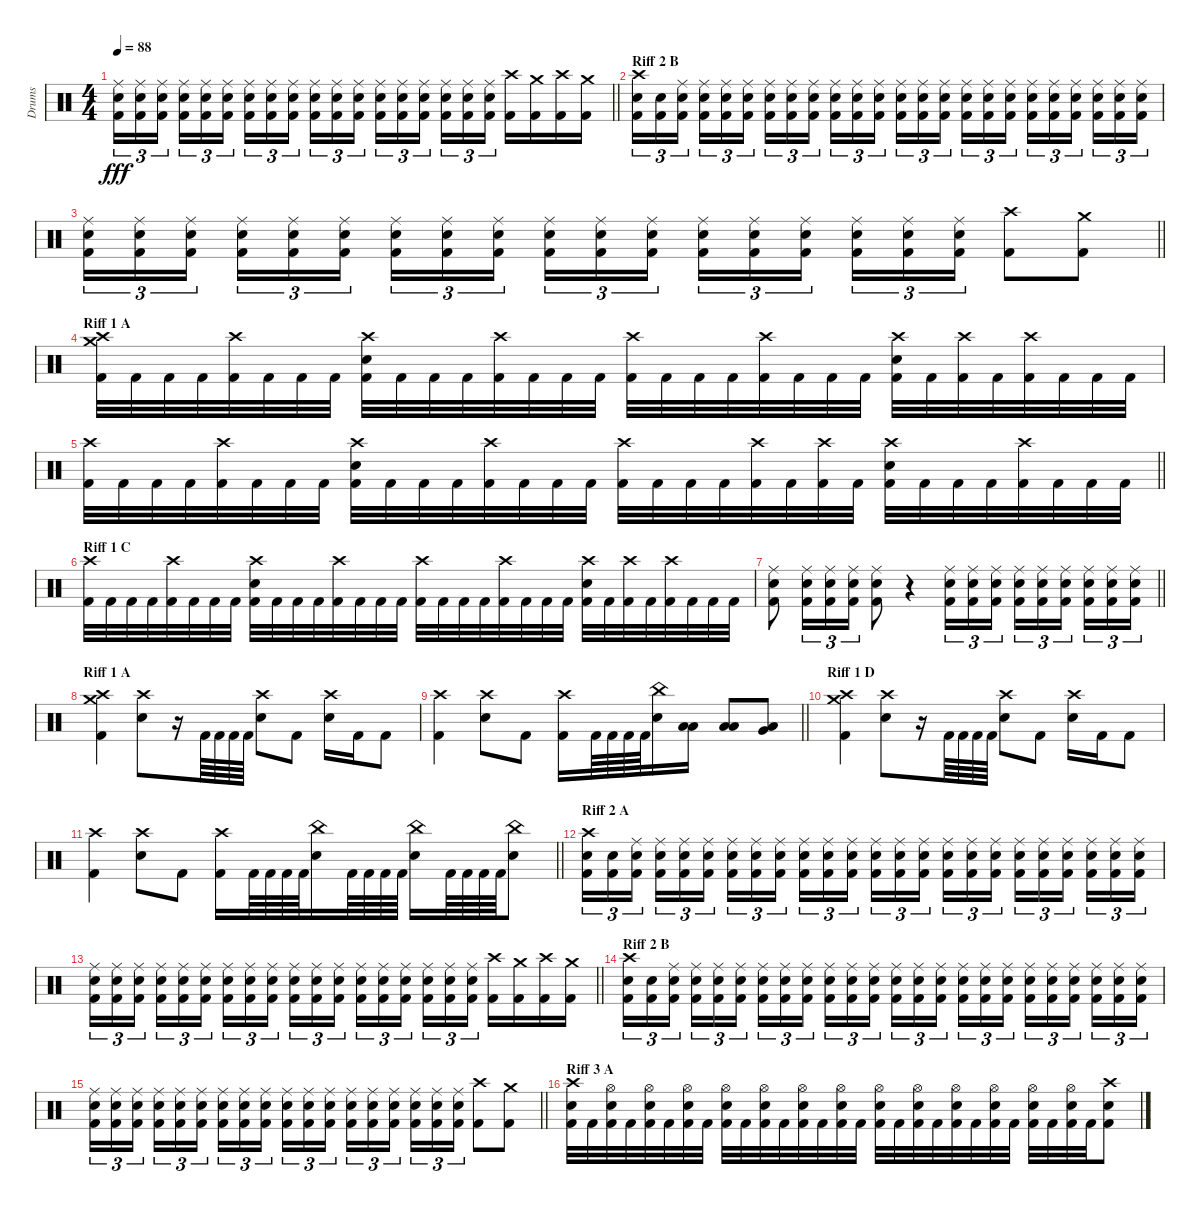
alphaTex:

\track ("Drums" "Drums") {instrument percussion}
\staff {score}
\articulation defaults
\ts (4 4)
\tempo 88
\clef neutral
\barLineRight lightlight
\ks c
("Ride (middle)" "Electric Snare (hit)" "Kick (hit) 2").16{tu (3 2) dy fff} ("Ride (middle)" "Electric Snare (hit)" "Kick (hit) 2").16{tu (3 2)} ("Ride (middle)" "Electric Snare (hit)" "Kick (hit) 2").16{tu (3 2) beam splitsecondary} ("Ride (middle)" "Electric Snare (hit)" "Kick (hit) 2").16{tu (3 2)} ("Ride (middle)" "Electric Snare (hit)" "Kick (hit) 2").16{tu (3 2)} ("Ride (middle)" "Electric Snare (hit)" "Kick (hit) 2").16{tu (3 2)} ("Ride (middle)" "Electric Snare (hit)" "Kick (hit) 2").16{tu (3 2)} ("Ride (middle)" "Electric Snare (hit)" "Kick (hit) 2").16{tu (3 2)} ("Ride (middle)" "Electric Snare (hit)" "Kick (hit) 2").16{tu (3 2) beam splitsecondary} ("Ride (middle)" "Electric Snare (hit)" "Kick (hit) 2").16{tu (3 2)} ("Ride (middle)" "Electric Snare (hit)" "Kick (hit) 2").16{tu (3 2)} ("Ride (middle)" "Electric Snare (hit)" "Kick (hit) 2").16{tu (3 2)} ("Ride (middle)" "Electric Snare (hit)" "Kick (hit) 2").16{tu (3 2)} ("Ride (middle)" "Electric Snare (hit)" "Kick (hit) 2").16{tu (3 2)} ("Ride (middle)" "Electric Snare (hit)" "Kick (hit) 2").16{tu (3 2) beam splitsecondary} ("Ride (middle)" "Electric Snare (hit)" "Kick (hit) 2").16{tu (3 2)} ("Ride (middle)" "Electric Snare (hit)" "Kick (hit) 2").16{tu (3 2)} ("Ride (middle)" "Electric Snare (hit)" "Kick (hit) 2").16{tu (3 2)} ("Crash high (hit)" "Kick (hit) 2").16 ("Crash medium (hit)" "Kick (hit) 2").16 ("Crash high (hit)" "Kick (hit) 2").16 ("Crash medium (hit)" "Kick (hit) 2").16 |
\section ("" "Riff 2 B")
("Crash high (hit)" "Electric Snare (hit)" "Kick (hit) 2").16{tu (3 2)} ("Electric Snare (hit)" "Kick (hit) 2").16{tu (3 2)} ("Ride (middle)" "Electric Snare (hit)" "Kick (hit) 2").16{tu (3 2) beam splitsecondary} ("Ride (middle)" "Electric Snare (hit)" "Kick (hit) 2").16{tu (3 2)} ("Ride (middle)" "Electric Snare (hit)" "Kick (hit) 2").16{tu (3 2)} ("Ride (middle)" "Electric Snare (hit)" "Kick (hit) 2").16{tu (3 2)} ("Ride (middle)" "Electric Snare (hit)" "Kick (hit) 2").16{tu (3 2)} ("Ride (middle)" "Electric Snare (hit)" "Kick (hit) 2").16{tu (3 2)} ("Ride (middle)" "Electric Snare (hit)" "Kick (hit) 2").16{tu (3 2) beam splitsecondary} ("Ride (middle)" "Electric Snare (hit)" "Kick (hit) 2").16{tu (3 2)} ("Ride (middle)" "Electric Snare (hit)" "Kick (hit) 2").16{tu (3 2)} ("Ride (middle)" "Electric Snare (hit)" "Kick (hit) 2").16{tu (3 2)} ("Ride (middle)" "Electric Snare (hit)" "Kick (hit) 2").16{tu (3 2)} ("Ride (middle)" "Electric Snare (hit)" "Kick (hit) 2").16{tu (3 2)} ("Ride (middle)" "Electric Snare (hit)" "Kick (hit) 2").16{tu (3 2) beam splitsecondary} ("Ride (middle)" "Electric Snare (hit)" "Kick (hit) 2").16{tu (3 2)} ("Ride (middle)" "Electric Snare (hit)" "Kick (hit) 2").16{tu (3 2)} ("Ride (middle)" "Electric Snare (hit)" "Kick (hit) 2").16{tu (3 2)} ("Ride (middle)" "Electric Snare (hit)" "Kick (hit) 2").16{tu (3 2)} ("Ride (middle)" "Electric Snare (hit)" "Kick (hit) 2").16{tu (3 2)} ("Ride (middle)" "Electric Snare (hit)" "Kick (hit) 2").16{tu (3 2) beam splitsecondary} ("Ride (middle)" "Electric Snare (hit)" "Kick (hit) 2").16{tu (3 2)} ("Ride (middle)" "Electric Snare (hit)" "Kick (hit) 2").16{tu (3 2)} ("Ride (middle)" "Electric Snare (hit)" "Kick (hit) 2").16{tu (3 2)} |
\barLineRight lightlight
("Ride (middle)" "Electric Snare (hit)" "Kick (hit) 2").16{tu (3 2)} ("Ride (middle)" "Electric Snare (hit)" "Kick (hit) 2").16{tu (3 2)} ("Ride (middle)" "Electric Snare (hit)" "Kick (hit) 2").16{tu (3 2) beam splitsecondary} ("Ride (middle)" "Electric Snare (hit)" "Kick (hit) 2").16{tu (3 2)} ("Ride (middle)" "Electric Snare (hit)" "Kick (hit) 2").16{tu (3 2)} ("Ride (middle)" "Electric Snare (hit)" "Kick (hit) 2").16{tu (3 2)} ("Ride (middle)" "Electric Snare (hit)" "Kick (hit) 2").16{tu (3 2)} ("Ride (middle)" "Electric Snare (hit)" "Kick (hit) 2").16{tu (3 2)} ("Ride (middle)" "Electric Snare (hit)" "Kick (hit) 2").16{tu (3 2) beam splitsecondary} ("Ride (middle)" "Electric Snare (hit)" "Kick (hit) 2").16{tu (3 2)} ("Ride (middle)" "Electric Snare (hit)" "Kick (hit) 2").16{tu (3 2)} ("Ride (middle)" "Electric Snare (hit)" "Kick (hit) 2").16{tu (3 2)} ("Ride (middle)" "Electric Snare (hit)" "Kick (hit) 2").16{tu (3 2)} ("Ride (middle)" "Electric Snare (hit)" "Kick (hit) 2").16{tu (3 2)} ("Ride (middle)" "Electric Snare (hit)" "Kick (hit) 2").16{tu (3 2) beam splitsecondary} ("Ride (middle)" "Electric Snare (hit)" "Kick (hit) 2").16{tu (3 2)} ("Ride (middle)" "Electric Snare (hit)" "Kick (hit) 2").16{tu (3 2)} ("Ride (middle)" "Electric Snare (hit)" "Kick (hit) 2").16{tu (3 2)} ("Crash high (hit)" "Kick (hit) 2").8 ("Crash medium (hit)" "Kick (hit) 2").8 |
\section ("" "Riff 1 A")
("Crash medium (hit)" "Crash high (hit)" "Kick (hit) 2").32 "Kick (hit) 2".32 "Kick (hit) 2".32 "Kick (hit) 2".32 ("Crash high (hit)" "Kick (hit) 2").32 "Kick (hit) 2".32 "Kick (hit) 2".32 "Kick (hit) 2".32 ("Crash high (hit)" "Electric Snare (hit)" "Kick (hit) 2").32 "Kick (hit) 2".32 "Kick (hit) 2".32 "Kick (hit) 2".32 ("Crash high (hit)" "Kick (hit) 2").32 "Kick (hit) 2".32 "Kick (hit) 2".32 "Kick (hit) 2".32 ("Crash high (hit)" "Kick (hit) 2").32 "Kick (hit) 2".32 "Kick (hit) 2".32 "Kick (hit) 2".32 ("Crash high (hit)" "Kick (hit) 2").32 "Kick (hit) 2".32 "Kick (hit) 2".32 "Kick (hit) 2".32 ("Crash high (hit)" "Electric Snare (hit)" "Kick (hit) 2").32 "Kick (hit) 2".32 ("Crash high (hit)" "Kick (hit) 2").32 "Kick (hit) 2".32 ("Crash high (hit)" "Kick (hit) 2").32 "Kick (hit) 2".32 "Kick (hit) 2".32 "Kick (hit) 2".32 |
\barLineRight lightlight
("Crash high (hit)" "Kick (hit) 2").32 "Kick (hit) 2".32 "Kick (hit) 2".32 "Kick (hit) 2".32 ("Crash high (hit)" "Kick (hit) 2").32 "Kick (hit) 2".32 "Kick (hit) 2".32 "Kick (hit) 2".32 ("Crash high (hit)" "Electric Snare (hit)" "Kick (hit) 2").32 "Kick (hit) 2".32 "Kick (hit) 2".32 "Kick (hit) 2".32 ("Crash high (hit)" "Kick (hit) 2").32 "Kick (hit) 2".32 "Kick (hit) 2".32 "Kick (hit) 2".32 ("Crash high (hit)" "Kick (hit) 2").32 "Kick (hit) 2".32 "Kick (hit) 2".32 "Kick (hit) 2".32 ("Crash high (hit)" "Kick (hit) 2").32 "Kick (hit) 2".32 ("Crash high (hit)" "Kick (hit) 2").32 "Kick (hit) 2".32 ("Crash high (hit)" "Electric Snare (hit)" "Kick (hit) 2").32 "Kick (hit) 2".32 "Kick (hit) 2".32 "Kick (hit) 2".32 ("Crash high (hit)" "Kick (hit) 2").32 "Kick (hit) 2".32 "Kick (hit) 2".32 "Kick (hit) 2".32 |
\section ("" "Riff 1 C")
("Crash high (hit)" "Kick (hit) 2").32 "Kick (hit) 2".32 "Kick (hit) 2".32 "Kick (hit) 2".32 ("Crash high (hit)" "Kick (hit) 2").32 "Kick (hit) 2".32 "Kick (hit) 2".32 "Kick (hit) 2".32 ("Crash high (hit)" "Electric Snare (hit)" "Kick (hit) 2").32 "Kick (hit) 2".32 "Kick (hit) 2".32 "Kick (hit) 2".32 ("Crash high (hit)" "Kick (hit) 2").32 "Kick (hit) 2".32 "Kick (hit) 2".32 "Kick (hit) 2".32 ("Crash high (hit)" "Kick (hit) 2").32 "Kick (hit) 2".32 "Kick (hit) 2".32 "Kick (hit) 2".32 ("Crash high (hit)" "Kick (hit) 2").32 "Kick (hit) 2".32 "Kick (hit) 2".32 "Kick (hit) 2".32 ("Crash high (hit)" "Electric Snare (hit)" "Kick (hit) 2").32 "Kick (hit) 2".32 ("Crash high (hit)" "Kick (hit) 2").32 "Kick (hit) 2".32 ("Crash high (hit)" "Kick (hit) 2").32 "Kick (hit) 2".32 "Kick (hit) 2".32 "Kick (hit) 2".32 |
\barLineRight lightlight
("Ride (middle)" "Electric Snare (hit)" "Kick (hit) 2").8 ("Ride (middle)" "Electric Snare (hit)" "Kick (hit) 2").16{tu (3 2)} ("Ride (middle)" "Electric Snare (hit)" "Kick (hit) 2").16{tu (3 2)} ("Ride (middle)" "Electric Snare (hit)" "Kick (hit) 2").16{tu (3 2)} ("Ride (middle)" "Electric Snare (hit)" "Kick (hit) 2").8 r.4 ("Ride (middle)" "Electric Snare (hit)" "Kick (hit) 2").16{tu (3 2)} ("Ride (middle)" "Electric Snare (hit)" "Kick (hit) 2").16{tu (3 2)} ("Ride (middle)" "Electric Snare (hit)" "Kick (hit) 2").16{tu (3 2)} ("Ride (middle)" "Electric Snare (hit)" "Kick (hit) 2").16{tu (3 2)} ("Ride (middle)" "Electric Snare (hit)" "Kick (hit) 2").16{tu (3 2)} ("Ride (middle)" "Electric Snare (hit)" "Kick (hit) 2").16{tu (3 2) beam splitsecondary} ("Ride (middle)" "Electric Snare (hit)" "Kick (hit) 2").16{tu (3 2)} ("Ride (middle)" "Electric Snare (hit)" "Kick (hit) 2").16{tu (3 2)} ("Ride (middle)" "Electric Snare (hit)" "Kick (hit) 2").16{tu (3 2)} |
\section ("" "Riff 1 A")
("Crash medium (hit)" "Crash high (hit)" "Kick (hit) 2").4 ("Crash high (hit)" "Electric Snare (hit)").8 r.16 "Kick (hit) 2".64 "Kick (hit) 2".64 "Kick (hit) 2".64 "Kick (hit) 2".64 ("Crash high (hit)" "Electric Snare (hit)").8 "Kick (hit) 2".8 ("Crash high (hit)" "Electric Snare (hit)").16 "Kick (hit) 2".16 "Kick (hit) 2".8 |
\barLineRight lightlight
("Crash high (hit)" "Kick (hit) 2").4 ("Crash high (hit)" "Electric Snare (hit)").8 "Kick (hit) 2".8 ("Crash high (hit)" "Kick (hit) 2").16 "Kick (hit) 2".64 "Kick (hit) 2".64 "Kick (hit) 2".64 "Kick (hit) 2".64 ("China (hit)" "Electric Snare (hit)").16 ("Low Tom (hit)" "Low Floor Tom (hit)").16 ("Low Tom (hit)" "Low Floor Tom (hit)").8 ("Very Low Tom (hit)" "Low Floor Tom (hit)").8 |
\section ("" "Riff 1 D")
("Crash medium (hit)" "Crash high (hit)" "Kick (hit) 2").4 ("Crash high (hit)" "Electric Snare (hit)").8 r.16 "Kick (hit) 2".64 "Kick (hit) 2".64 "Kick (hit) 2".64 "Kick (hit) 2".64 ("Crash high (hit)" "Electric Snare (hit)").8 "Kick (hit) 2".8 ("Crash high (hit)" "Electric Snare (hit)").16 "Kick (hit) 2".16 "Kick (hit) 2".8 |
\barLineRight lightlight
("Crash high (hit)" "Kick (hit) 2").4 ("Crash high (hit)" "Electric Snare (hit)").8 "Kick (hit) 2".8 ("Crash high (hit)" "Kick (hit) 2").16 "Kick (hit) 2".64 "Kick (hit) 2".64 "Kick (hit) 2".64 "Kick (hit) 2".64 ("China (hit)" "Electric Snare (hit)").16 "Kick (hit) 2".64 "Kick (hit) 2".64 "Kick (hit) 2".64 "Kick (hit) 2".64 ("China (hit)" "Electric Snare (hit)").16 "Kick (hit) 2".64 "Kick (hit) 2".64 "Kick (hit) 2".64 "Kick (hit) 2".64 ("China (hit)" "Electric Snare (hit)").8 |
\section ("" "Riff 2 A")
("Crash high (hit)" "Electric Snare (hit)" "Kick (hit) 2").16{tu (3 2)} ("Electric Snare (hit)" "Kick (hit) 2").16{tu (3 2)} ("Ride (middle)" "Electric Snare (hit)" "Kick (hit) 2").16{tu (3 2) beam splitsecondary} ("Ride (middle)" "Electric Snare (hit)" "Kick (hit) 2").16{tu (3 2)} ("Ride (middle)" "Electric Snare (hit)" "Kick (hit) 2").16{tu (3 2)} ("Ride (middle)" "Electric Snare (hit)" "Kick (hit) 2").16{tu (3 2)} ("Ride (middle)" "Electric Snare (hit)" "Kick (hit) 2").16{tu (3 2)} ("Ride (middle)" "Electric Snare (hit)" "Kick (hit) 2").16{tu (3 2)} ("Ride (middle)" "Electric Snare (hit)" "Kick (hit) 2").16{tu (3 2) beam splitsecondary} ("Ride (middle)" "Electric Snare (hit)" "Kick (hit) 2").16{tu (3 2)} ("Ride (middle)" "Electric Snare (hit)" "Kick (hit) 2").16{tu (3 2)} ("Ride (middle)" "Electric Snare (hit)" "Kick (hit) 2").16{tu (3 2)} ("Ride (middle)" "Electric Snare (hit)" "Kick (hit) 2").16{tu (3 2)} ("Ride (middle)" "Electric Snare (hit)" "Kick (hit) 2").16{tu (3 2)} ("Ride (middle)" "Electric Snare (hit)" "Kick (hit) 2").16{tu (3 2) beam splitsecondary} ("Ride (middle)" "Electric Snare (hit)" "Kick (hit) 2").16{tu (3 2)} ("Ride (middle)" "Electric Snare (hit)" "Kick (hit) 2").16{tu (3 2)} ("Ride (middle)" "Electric Snare (hit)" "Kick (hit) 2").16{tu (3 2)} ("Ride (middle)" "Electric Snare (hit)" "Kick (hit) 2").16{tu (3 2)} ("Ride (middle)" "Electric Snare (hit)" "Kick (hit) 2").16{tu (3 2)} ("Ride (middle)" "Electric Snare (hit)" "Kick (hit) 2").16{tu (3 2) beam splitsecondary} ("Ride (middle)" "Electric Snare (hit)" "Kick (hit) 2").16{tu (3 2)} ("Ride (middle)" "Electric Snare (hit)" "Kick (hit) 2").16{tu (3 2)} ("Ride (middle)" "Electric Snare (hit)" "Kick (hit) 2").16{tu (3 2)} |
\barLineRight lightlight
("Ride (middle)" "Electric Snare (hit)" "Kick (hit) 2").16{tu (3 2)} ("Ride (middle)" "Electric Snare (hit)" "Kick (hit) 2").16{tu (3 2)} ("Ride (middle)" "Electric Snare (hit)" "Kick (hit) 2").16{tu (3 2) beam splitsecondary} ("Ride (middle)" "Electric Snare (hit)" "Kick (hit) 2").16{tu (3 2)} ("Ride (middle)" "Electric Snare (hit)" "Kick (hit) 2").16{tu (3 2)} ("Ride (middle)" "Electric Snare (hit)" "Kick (hit) 2").16{tu (3 2)} ("Ride (middle)" "Electric Snare (hit)" "Kick (hit) 2").16{tu (3 2)} ("Ride (middle)" "Electric Snare (hit)" "Kick (hit) 2").16{tu (3 2)} ("Ride (middle)" "Electric Snare (hit)" "Kick (hit) 2").16{tu (3 2) beam splitsecondary} ("Ride (middle)" "Electric Snare (hit)" "Kick (hit) 2").16{tu (3 2)} ("Ride (middle)" "Electric Snare (hit)" "Kick (hit) 2").16{tu (3 2)} ("Ride (middle)" "Electric Snare (hit)" "Kick (hit) 2").16{tu (3 2)} ("Ride (middle)" "Electric Snare (hit)" "Kick (hit) 2").16{tu (3 2)} ("Ride (middle)" "Electric Snare (hit)" "Kick (hit) 2").16{tu (3 2)} ("Ride (middle)" "Electric Snare (hit)" "Kick (hit) 2").16{tu (3 2) beam splitsecondary} ("Ride (middle)" "Electric Snare (hit)" "Kick (hit) 2").16{tu (3 2)} ("Ride (middle)" "Electric Snare (hit)" "Kick (hit) 2").16{tu (3 2)} ("Ride (middle)" "Electric Snare (hit)" "Kick (hit) 2").16{tu (3 2)} ("Crash high (hit)" "Kick (hit) 2").16 ("Crash medium (hit)" "Kick (hit) 2").16 ("Crash high (hit)" "Kick (hit) 2").16 ("Crash medium (hit)" "Kick (hit) 2").16 |
\section ("" "Riff 2 B")
("Crash high (hit)" "Electric Snare (hit)" "Kick (hit) 2").16{tu (3 2)} ("Electric Snare (hit)" "Kick (hit) 2").16{tu (3 2)} ("Ride (middle)" "Electric Snare (hit)" "Kick (hit) 2").16{tu (3 2) beam splitsecondary} ("Ride (middle)" "Electric Snare (hit)" "Kick (hit) 2").16{tu (3 2)} ("Ride (middle)" "Electric Snare (hit)" "Kick (hit) 2").16{tu (3 2)} ("Ride (middle)" "Electric Snare (hit)" "Kick (hit) 2").16{tu (3 2)} ("Ride (middle)" "Electric Snare (hit)" "Kick (hit) 2").16{tu (3 2)} ("Ride (middle)" "Electric Snare (hit)" "Kick (hit) 2").16{tu (3 2)} ("Ride (middle)" "Electric Snare (hit)" "Kick (hit) 2").16{tu (3 2) beam splitsecondary} ("Ride (middle)" "Electric Snare (hit)" "Kick (hit) 2").16{tu (3 2)} ("Ride (middle)" "Electric Snare (hit)" "Kick (hit) 2").16{tu (3 2)} ("Ride (middle)" "Electric Snare (hit)" "Kick (hit) 2").16{tu (3 2)} ("Ride (middle)" "Electric Snare (hit)" "Kick (hit) 2").16{tu (3 2)} ("Ride (middle)" "Electric Snare (hit)" "Kick (hit) 2").16{tu (3 2)} ("Ride (middle)" "Electric Snare (hit)" "Kick (hit) 2").16{tu (3 2) beam splitsecondary} ("Ride (middle)" "Electric Snare (hit)" "Kick (hit) 2").16{tu (3 2)} ("Ride (middle)" "Electric Snare (hit)" "Kick (hit) 2").16{tu (3 2)} ("Ride (middle)" "Electric Snare (hit)" "Kick (hit) 2").16{tu (3 2)} ("Ride (middle)" "Electric Snare (hit)" "Kick (hit) 2").16{tu (3 2)} ("Ride (middle)" "Electric Snare (hit)" "Kick (hit) 2").16{tu (3 2)} ("Ride (middle)" "Electric Snare (hit)" "Kick (hit) 2").16{tu (3 2) beam splitsecondary} ("Ride (middle)" "Electric Snare (hit)" "Kick (hit) 2").16{tu (3 2)} ("Ride (middle)" "Electric Snare (hit)" "Kick (hit) 2").16{tu (3 2)} ("Ride (middle)" "Electric Snare (hit)" "Kick (hit) 2").16{tu (3 2)} |
\barLineRight lightlight
("Ride (middle)" "Electric Snare (hit)" "Kick (hit) 2").16{tu (3 2)} ("Ride (middle)" "Electric Snare (hit)" "Kick (hit) 2").16{tu (3 2)} ("Ride (middle)" "Electric Snare (hit)" "Kick (hit) 2").16{tu (3 2) beam splitsecondary} ("Ride (middle)" "Electric Snare (hit)" "Kick (hit) 2").16{tu (3 2)} ("Ride (middle)" "Electric Snare (hit)" "Kick (hit) 2").16{tu (3 2)} ("Ride (middle)" "Electric Snare (hit)" "Kick (hit) 2").16{tu (3 2)} ("Ride (middle)" "Electric Snare (hit)" "Kick (hit) 2").16{tu (3 2)} ("Ride (middle)" "Electric Snare (hit)" "Kick (hit) 2").16{tu (3 2)} ("Ride (middle)" "Electric Snare (hit)" "Kick (hit) 2").16{tu (3 2) beam splitsecondary} ("Ride (middle)" "Electric Snare (hit)" "Kick (hit) 2").16{tu (3 2)} ("Ride (middle)" "Electric Snare (hit)" "Kick (hit) 2").16{tu (3 2)} ("Ride (middle)" "Electric Snare (hit)" "Kick (hit) 2").16{tu (3 2)} ("Ride (middle)" "Electric Snare (hit)" "Kick (hit) 2").16{tu (3 2)} ("Ride (middle)" "Electric Snare (hit)" "Kick (hit) 2").16{tu (3 2)} ("Ride (middle)" "Electric Snare (hit)" "Kick (hit) 2").16{tu (3 2) beam splitsecondary} ("Ride (middle)" "Electric Snare (hit)" "Kick (hit) 2").16{tu (3 2)} ("Ride (middle)" "Electric Snare (hit)" "Kick (hit) 2").16{tu (3 2)} ("Ride (middle)" "Electric Snare (hit)" "Kick (hit) 2").16{tu (3 2)} ("Crash high (hit)" "Kick (hit) 2").8 ("Crash medium (hit)" "Kick (hit) 2").8 |
\section ("" "Riff 3 A")
("Crash high (hit)" "Electric Snare (hit)" "Kick (hit) 2").32 "Kick (hit) 2".32 ("Hi-Hat (open)" "Electric Snare (hit)" "Kick (hit) 2").32 "Kick (hit) 2".32 ("Hi-Hat (open)" "Electric Snare (hit)" "Kick (hit) 2").32 "Kick (hit) 2".32 ("Hi-Hat (open)" "Electric Snare (hit)" "Kick (hit) 2").32 "Kick (hit) 2".32 ("Hi-Hat (open)" "Electric Snare (hit)" "Kick (hit) 2").32 "Kick (hit) 2".32 ("Hi-Hat (open)" "Electric Snare (hit)" "Kick (hit) 2").32 "Kick (hit) 2".32 ("Hi-Hat (open)" "Electric Snare (hit)" "Kick (hit) 2").32 "Kick (hit) 2".32 ("Hi-Hat (open)" "Electric Snare (hit)" "Kick (hit) 2").32 "Kick (hit) 2".32 ("Hi-Hat (open)" "Electric Snare (hit)" "Kick (hit) 2").32 "Kick (hit) 2".32 ("Hi-Hat (open)" "Electric Snare (hit)" "Kick (hit) 2").32 "Kick (hit) 2".32 ("Hi-Hat (open)" "Electric Snare (hit)" "Kick (hit) 2").32 "Kick (hit) 2".32 ("Hi-Hat (open)" "Electric Snare (hit)" "Kick (hit) 2").32 "Kick (hit) 2".32 ("Hi-Hat (open)" "Electric Snare (hit)" "Kick (hit) 2").32 "Kick (hit) 2".32 ("Hi-Hat (open)" "Electric Snare (hit)" "Kick (hit) 2").32 "Kick (hit) 2".32 ("Crash high (hit)" "Electric Snare (hit)" "Kick (hit) 2").8
